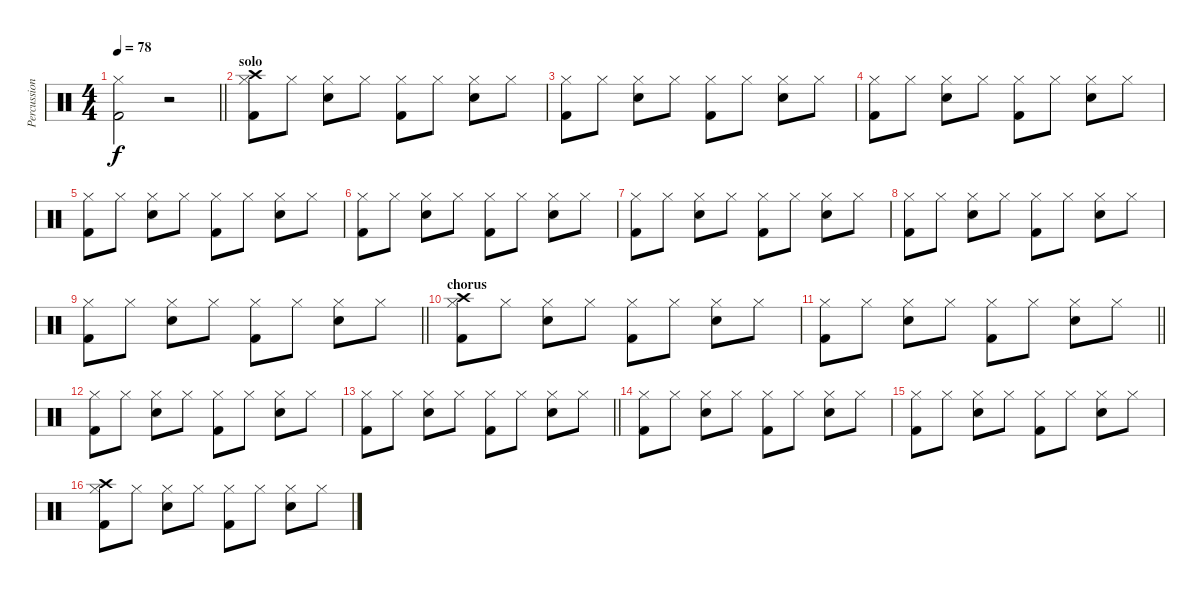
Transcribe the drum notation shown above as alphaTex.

\track ("Percussioni" "Percussion") {instrument percussion}
\staff {score}
\articulation defaults
\ts (4 4)
\tempo 78
\clef neutral
\barLineRight lightlight
\ks c
("Hi-Hat (closed)" "Kick (hit) 2").2{dy f} r.2 |
\section ("" "solo")
("Hi-Hat (closed)" "Kick (hit) 2" "Crash high (hit)").8 "Hi-Hat (closed)".8 ("Hi-Hat (closed)" "Snare (hit) 2").8 "Hi-Hat (closed)".8 ("Hi-Hat (closed)" "Kick (hit) 2").8 "Hi-Hat (closed)".8 ("Hi-Hat (closed)" "Snare (hit) 2").8 "Hi-Hat (closed)".8 |
("Hi-Hat (closed)" "Kick (hit) 2").8 "Hi-Hat (closed)".8 ("Hi-Hat (closed)" "Snare (hit) 2").8 "Hi-Hat (closed)".8 ("Hi-Hat (closed)" "Kick (hit) 2").8 "Hi-Hat (closed)".8 ("Hi-Hat (closed)" "Snare (hit) 2").8 "Hi-Hat (closed)".8 |
("Hi-Hat (closed)" "Kick (hit) 2").8 "Hi-Hat (closed)".8 ("Hi-Hat (closed)" "Snare (hit) 2").8 "Hi-Hat (closed)".8 ("Hi-Hat (closed)" "Kick (hit) 2").8 "Hi-Hat (closed)".8 ("Hi-Hat (closed)" "Snare (hit) 2").8 "Hi-Hat (closed)".8 |
("Hi-Hat (closed)" "Kick (hit) 2").8 "Hi-Hat (closed)".8 ("Hi-Hat (closed)" "Snare (hit) 2").8 "Hi-Hat (closed)".8 ("Hi-Hat (closed)" "Kick (hit) 2").8 "Hi-Hat (closed)".8 ("Hi-Hat (closed)" "Snare (hit) 2").8 "Hi-Hat (closed)".8 |
("Hi-Hat (closed)" "Kick (hit) 2").8 "Hi-Hat (closed)".8 ("Hi-Hat (closed)" "Snare (hit) 2").8 "Hi-Hat (closed)".8 ("Hi-Hat (closed)" "Kick (hit) 2").8 "Hi-Hat (closed)".8 ("Hi-Hat (closed)" "Snare (hit) 2").8 "Hi-Hat (closed)".8 |
("Hi-Hat (closed)" "Kick (hit) 2").8 "Hi-Hat (closed)".8 ("Hi-Hat (closed)" "Snare (hit) 2").8 "Hi-Hat (closed)".8 ("Hi-Hat (closed)" "Kick (hit) 2").8 "Hi-Hat (closed)".8 ("Hi-Hat (closed)" "Snare (hit) 2").8 "Hi-Hat (closed)".8 |
("Hi-Hat (closed)" "Kick (hit) 2").8 "Hi-Hat (closed)".8 ("Hi-Hat (closed)" "Snare (hit) 2").8 "Hi-Hat (closed)".8 ("Hi-Hat (closed)" "Kick (hit) 2").8 "Hi-Hat (closed)".8 ("Hi-Hat (closed)" "Snare (hit) 2").8 "Hi-Hat (closed)".8 |
\barLineRight lightlight
("Hi-Hat (closed)" "Kick (hit) 2").8 "Hi-Hat (closed)".8 ("Hi-Hat (closed)" "Snare (hit) 2").8 "Hi-Hat (closed)".8 ("Hi-Hat (closed)" "Kick (hit) 2").8 "Hi-Hat (closed)".8 ("Hi-Hat (closed)" "Snare (hit) 2").8 "Hi-Hat (closed)".8 |
\section ("" "chorus")
("Hi-Hat (closed)" "Kick (hit) 2" "Crash high (hit)").8 "Hi-Hat (closed)".8 ("Hi-Hat (closed)" "Snare (hit) 2").8 "Hi-Hat (closed)".8 ("Hi-Hat (closed)" "Kick (hit) 2").8 "Hi-Hat (closed)".8 ("Hi-Hat (closed)" "Snare (hit) 2").8 "Hi-Hat (closed)".8 |
\barLineRight lightlight
("Hi-Hat (closed)" "Kick (hit) 2").8 "Hi-Hat (closed)".8 ("Hi-Hat (closed)" "Snare (hit) 2").8 "Hi-Hat (closed)".8 ("Hi-Hat (closed)" "Kick (hit) 2").8 "Hi-Hat (closed)".8 ("Hi-Hat (closed)" "Snare (hit) 2").8 "Hi-Hat (closed)".8 |
("Hi-Hat (closed)" "Kick (hit) 2").8 "Hi-Hat (closed)".8 ("Hi-Hat (closed)" "Snare (hit) 2").8 "Hi-Hat (closed)".8 ("Hi-Hat (closed)" "Kick (hit) 2").8 "Hi-Hat (closed)".8 ("Hi-Hat (closed)" "Snare (hit) 2").8 "Hi-Hat (closed)".8 |
\barLineRight lightlight
("Hi-Hat (closed)" "Kick (hit) 2").8 "Hi-Hat (closed)".8 ("Hi-Hat (closed)" "Snare (hit) 2").8 "Hi-Hat (closed)".8 ("Hi-Hat (closed)" "Kick (hit) 2").8 "Hi-Hat (closed)".8 ("Hi-Hat (closed)" "Snare (hit) 2").8 "Hi-Hat (closed)".8 |
("Hi-Hat (closed)" "Kick (hit) 2").8 "Hi-Hat (closed)".8 ("Hi-Hat (closed)" "Snare (hit) 2").8 "Hi-Hat (closed)".8 ("Hi-Hat (closed)" "Kick (hit) 2").8 "Hi-Hat (closed)".8 ("Hi-Hat (closed)" "Snare (hit) 2").8 "Hi-Hat (closed)".8 |
("Hi-Hat (closed)" "Kick (hit) 2").8 "Hi-Hat (closed)".8 ("Hi-Hat (closed)" "Snare (hit) 2").8 "Hi-Hat (closed)".8 ("Hi-Hat (closed)" "Kick (hit) 2").8 "Hi-Hat (closed)".8 ("Hi-Hat (closed)" "Snare (hit) 2").8 "Hi-Hat (closed)".8 |
("Hi-Hat (closed)" "Kick (hit) 2" "Crash high (hit)").8 "Hi-Hat (closed)".8 ("Hi-Hat (closed)" "Snare (hit) 2").8 "Hi-Hat (closed)".8 ("Hi-Hat (closed)" "Kick (hit) 2").8 "Hi-Hat (closed)".8 ("Hi-Hat (closed)" "Snare (hit) 2").8 "Hi-Hat (closed)".8
